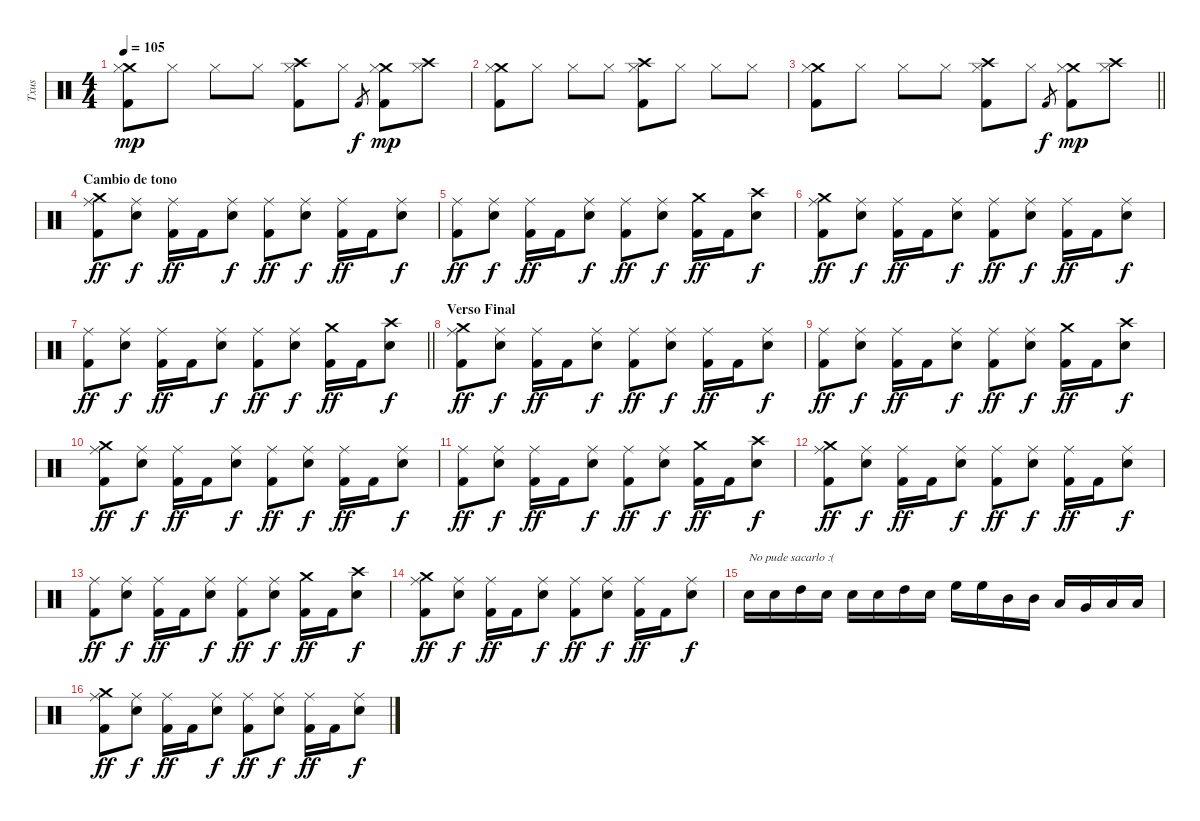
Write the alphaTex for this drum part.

\track ("Txus" "Txus") {instrument percussion}
\staff {score}
\articulation defaults
\ts (4 4)
\tempo 105
\clef neutral
\ks c
("Crash medium (hit)" "Hi-Hat (closed)" "Kick (hit) 2").8{dy mp} "Hi-Hat (closed)".8 "Hi-Hat (closed)".8 "Hi-Hat (closed)".8 ("Crash high (hit)" "Hi-Hat (closed)" "Kick (hit) 2").8 "Hi-Hat (closed)".8 "Kick (hit) 2".8{gr dy f} ("Crash medium (hit)" "Hi-Hat (closed)" "Kick (hit) 2").8{dy mp} ("Crash high (hit)" "Hi-Hat (closed)").8 |
("Crash medium (hit)" "Hi-Hat (closed)" "Kick (hit) 2").8 "Hi-Hat (closed)".8 "Hi-Hat (closed)".8 "Hi-Hat (closed)".8 ("Crash high (hit)" "Hi-Hat (closed)" "Kick (hit) 2").8 "Hi-Hat (closed)".8 "Hi-Hat (closed)".8 "Hi-Hat (closed)".8 |
\barLineRight lightlight
("Crash medium (hit)" "Hi-Hat (closed)" "Kick (hit) 2").8 "Hi-Hat (closed)".8 "Hi-Hat (closed)".8 "Hi-Hat (closed)".8 ("Crash high (hit)" "Hi-Hat (closed)" "Kick (hit) 2").8 "Hi-Hat (closed)".8 "Kick (hit) 2".8{gr dy f} ("Crash medium (hit)" "Hi-Hat (closed)" "Kick (hit) 2").8{dy mp} ("Crash high (hit)" "Hi-Hat (closed)").8 |
\section ("" "Cambio de tono")
("Crash medium (hit)" "Ride (middle)" "Kick (hit) 2").8{dy ff} ("Ride (middle)" "Electric Snare (hit)").8{dy f} ("Ride (middle)" "Kick (hit) 2").16{dy ff} "Kick (hit) 2".16 ("Ride (middle)" "Electric Snare (hit)").8{dy f} ("Ride (middle)" "Kick (hit) 2").8{dy ff} ("Ride (middle)" "Electric Snare (hit)").8{dy f} ("Ride (middle)" "Kick (hit) 2").16{dy ff} "Kick (hit) 2".16 ("Ride (middle)" "Electric Snare (hit)").8{dy f} |
("Ride (middle)" "Kick (hit) 2").8{dy ff} ("Ride (middle)" "Electric Snare (hit)").8{dy f} ("Ride (middle)" "Kick (hit) 2").16{dy ff} "Kick (hit) 2".16 ("Ride (middle)" "Electric Snare (hit)").8{dy f} ("Ride (middle)" "Kick (hit) 2").8{dy ff} ("Ride (middle)" "Electric Snare (hit)").8{dy f} ("Crash medium (hit)" "Kick (hit) 2").16{dy ff} "Kick (hit) 2".16 ("Crash high (hit)" "Electric Snare (hit)").8{dy f} |
("Crash medium (hit)" "Ride (middle)" "Kick (hit) 2").8{dy ff} ("Ride (middle)" "Electric Snare (hit)").8{dy f} ("Ride (middle)" "Kick (hit) 2").16{dy ff} "Kick (hit) 2".16 ("Ride (middle)" "Electric Snare (hit)").8{dy f} ("Ride (middle)" "Kick (hit) 2").8{dy ff} ("Ride (middle)" "Electric Snare (hit)").8{dy f} ("Ride (middle)" "Kick (hit) 2").16{dy ff} "Kick (hit) 2".16 ("Ride (middle)" "Electric Snare (hit)").8{dy f} |
\barLineRight lightlight
("Ride (middle)" "Kick (hit) 2").8{dy ff} ("Ride (middle)" "Electric Snare (hit)").8{dy f} ("Ride (middle)" "Kick (hit) 2").16{dy ff} "Kick (hit) 2".16 ("Ride (middle)" "Electric Snare (hit)").8{dy f} ("Ride (middle)" "Kick (hit) 2").8{dy ff} ("Ride (middle)" "Electric Snare (hit)").8{dy f} ("Crash medium (hit)" "Kick (hit) 2").16{dy ff} "Kick (hit) 2".16 ("Crash high (hit)" "Electric Snare (hit)").8{dy f} |
\section ("" "Verso Final")
("Crash medium (hit)" "Ride (middle)" "Kick (hit) 2").8{dy ff} ("Ride (middle)" "Electric Snare (hit)").8{dy f} ("Ride (middle)" "Kick (hit) 2").16{dy ff} "Kick (hit) 2".16 ("Ride (middle)" "Electric Snare (hit)").8{dy f} ("Ride (middle)" "Kick (hit) 2").8{dy ff} ("Ride (middle)" "Electric Snare (hit)").8{dy f} ("Ride (middle)" "Kick (hit) 2").16{dy ff} "Kick (hit) 2".16 ("Ride (middle)" "Electric Snare (hit)").8{dy f} |
("Ride (middle)" "Kick (hit) 2").8{dy ff} ("Ride (middle)" "Electric Snare (hit)").8{dy f} ("Ride (middle)" "Kick (hit) 2").16{dy ff} "Kick (hit) 2".16 ("Ride (middle)" "Electric Snare (hit)").8{dy f} ("Ride (middle)" "Kick (hit) 2").8{dy ff} ("Ride (middle)" "Electric Snare (hit)").8{dy f} ("Crash medium (hit)" "Kick (hit) 2").16{dy ff} "Kick (hit) 2".16 ("Crash high (hit)" "Electric Snare (hit)").8{dy f} |
("Crash medium (hit)" "Ride (middle)" "Kick (hit) 2").8{dy ff} ("Ride (middle)" "Electric Snare (hit)").8{dy f} ("Ride (middle)" "Kick (hit) 2").16{dy ff} "Kick (hit) 2".16 ("Ride (middle)" "Electric Snare (hit)").8{dy f} ("Ride (middle)" "Kick (hit) 2").8{dy ff} ("Ride (middle)" "Electric Snare (hit)").8{dy f} ("Ride (middle)" "Kick (hit) 2").16{dy ff} "Kick (hit) 2".16 ("Ride (middle)" "Electric Snare (hit)").8{dy f} |
("Ride (middle)" "Kick (hit) 2").8{dy ff} ("Ride (middle)" "Electric Snare (hit)").8{dy f} ("Ride (middle)" "Kick (hit) 2").16{dy ff} "Kick (hit) 2".16 ("Ride (middle)" "Electric Snare (hit)").8{dy f} ("Ride (middle)" "Kick (hit) 2").8{dy ff} ("Ride (middle)" "Electric Snare (hit)").8{dy f} ("Crash medium (hit)" "Kick (hit) 2").16{dy ff} "Kick (hit) 2".16 ("Crash high (hit)" "Electric Snare (hit)").8{dy f} |
("Crash medium (hit)" "Ride (middle)" "Kick (hit) 2").8{dy ff} ("Ride (middle)" "Electric Snare (hit)").8{dy f} ("Ride (middle)" "Kick (hit) 2").16{dy ff} "Kick (hit) 2".16 ("Ride (middle)" "Electric Snare (hit)").8{dy f} ("Ride (middle)" "Kick (hit) 2").8{dy ff} ("Ride (middle)" "Electric Snare (hit)").8{dy f} ("Ride (middle)" "Kick (hit) 2").16{dy ff} "Kick (hit) 2".16 ("Ride (middle)" "Electric Snare (hit)").8{dy f} |
("Ride (middle)" "Kick (hit) 2").8{dy ff} ("Ride (middle)" "Electric Snare (hit)").8{dy f} ("Ride (middle)" "Kick (hit) 2").16{dy ff} "Kick (hit) 2".16 ("Ride (middle)" "Electric Snare (hit)").8{dy f} ("Ride (middle)" "Kick (hit) 2").8{dy ff} ("Ride (middle)" "Electric Snare (hit)").8{dy f} ("Crash medium (hit)" "Kick (hit) 2").16{dy ff} "Kick (hit) 2".16 ("Crash high (hit)" "Electric Snare (hit)").8{dy f} |
("Crash medium (hit)" "Ride (middle)" "Kick (hit) 2").8{dy ff} ("Ride (middle)" "Electric Snare (hit)").8{dy f} ("Ride (middle)" "Kick (hit) 2").16{dy ff} "Kick (hit) 2".16 ("Ride (middle)" "Electric Snare (hit)").8{dy f} ("Ride (middle)" "Kick (hit) 2").8{dy ff} ("Ride (middle)" "Electric Snare (hit)").8{dy f} ("Ride (middle)" "Kick (hit) 2").16{dy ff} "Kick (hit) 2".16 ("Ride (middle)" "Electric Snare (hit)").8{dy f} |
"Electric Snare (hit)".16{txt "No pude sacarlo :("} "Electric Snare (hit)".16 "High Tom (hit)".16 "Electric Snare (hit)".16 "Electric Snare (hit)".16 "Electric Snare (hit)".16 "High Tom (hit)".16 "Electric Snare (hit)".16 "High Floor Tom (hit)".16 "High Floor Tom (hit)".16 "Mid Tom (hit)".16 "Mid Tom (hit)".16 "Low Tom (hit)".16 "Very Low Tom (hit)".16 "Low Floor Tom (hit)".16 "Low Floor Tom (hit)".16 |
("Crash medium (hit)" "Ride (middle)" "Kick (hit) 2").8{dy ff} ("Ride (middle)" "Electric Snare (hit)").8{dy f} ("Ride (middle)" "Kick (hit) 2").16{dy ff} "Kick (hit) 2".16 ("Ride (middle)" "Electric Snare (hit)").8{dy f} ("Ride (middle)" "Kick (hit) 2").8{dy ff} ("Ride (middle)" "Electric Snare (hit)").8{dy f} ("Ride (middle)" "Kick (hit) 2").16{dy ff} "Kick (hit) 2".16 ("Ride (middle)" "Electric Snare (hit)").8{dy f}
